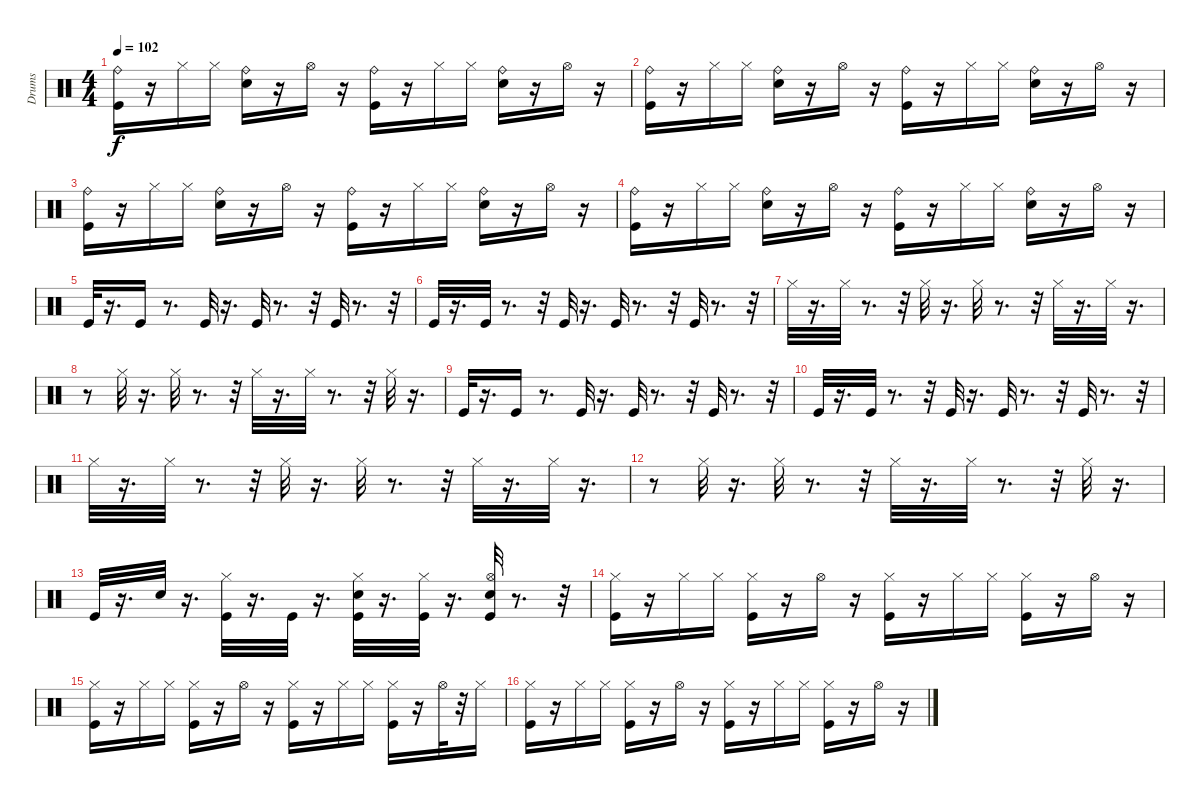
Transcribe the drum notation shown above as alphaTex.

\track ("Drums" "Drums") {instrument percussion}
\staff {score}
\articulation defaults
\ts (4 4)
\tempo 102
\clef neutral
\ks c
("Ride (bell)" "Kick (hit)").16{dy f} r.16 "Hi-Hat (closed)".16 "Hi-Hat (closed)".16 ("Ride (bell)" "Snare (hit) 2").16 r.16 "Hi-Hat (open)".16 r.16 ("Ride (bell)" "Kick (hit)").16 r.16 "Hi-Hat (closed)".16 "Hi-Hat (closed)".16 ("Ride (bell)" "Snare (hit) 2").16 r.16 "Hi-Hat (open)".16 r.16 |
("Ride (bell)" "Kick (hit)").16 r.16 "Hi-Hat (closed)".16 "Hi-Hat (closed)".16 ("Ride (bell)" "Snare (hit) 2").16 r.16 "Hi-Hat (open)".16 r.16 ("Ride (bell)" "Kick (hit)").16 r.16 "Hi-Hat (closed)".16 "Hi-Hat (closed)".16 ("Ride (bell)" "Snare (hit) 2").16 r.16 "Hi-Hat (open)".16 r.16 |
("Ride (bell)" "Kick (hit)").16 r.16 "Hi-Hat (closed)".16 "Hi-Hat (closed)".16 ("Ride (bell)" "Snare (hit) 2").16 r.16 "Hi-Hat (open)".16 r.16 ("Ride (bell)" "Kick (hit)").16 r.16 "Hi-Hat (closed)".16 "Hi-Hat (closed)".16 ("Ride (bell)" "Snare (hit) 2").16 r.16 "Hi-Hat (open)".16 r.16 |
("Ride (bell)" "Kick (hit)").16 r.16 "Hi-Hat (closed)".16 "Hi-Hat (closed)".16 ("Ride (bell)" "Snare (hit) 2").16 r.16 "Hi-Hat (open)".16 r.16 ("Ride (bell)" "Kick (hit)").16 r.16 "Hi-Hat (closed)".16 "Hi-Hat (closed)".16 ("Ride (bell)" "Snare (hit) 2").16 r.16 "Hi-Hat (open)".16 r.16 |
"Kick (hit)".32 r.16{d} "Kick (hit)".16 r.8{d} "Kick (hit)".32 r.16{d} "Kick (hit)".32 r.8{d} r.32 "Kick (hit)".32 r.8{d} r.32 |
"Kick (hit)".32 r.16{d} "Kick (hit)".32 r.8{d} r.32 "Kick (hit)".32 r.16{d} "Kick (hit)".32 r.8{d} r.32 "Kick (hit)".32 r.8{d} r.32 |
"Hi-Hat (closed)".32 r.16{d} "Hi-Hat (closed)".32 r.8{d} r.32 "Hi-Hat (closed)".32 r.16{d} "Hi-Hat (closed)".32 r.8{d} r.32 "Hi-Hat (closed)".32 r.16{d} "Hi-Hat (closed)".32 r.16{d} |
r.8 "Hi-Hat (closed)".32 r.16{d} "Hi-Hat (closed)".32 r.8{d} r.32 "Hi-Hat (closed)".32 r.16{d} "Hi-Hat (closed)".32 r.8{d} r.32 "Hi-Hat (closed)".32 r.16{d} |
"Kick (hit)".32 r.16{d} "Kick (hit)".16 r.8{d} "Kick (hit)".32 r.16{d} "Kick (hit)".32 r.8{d} r.32 "Kick (hit)".32 r.8{d} r.32 |
"Kick (hit)".32 r.16{d} "Kick (hit)".32 r.8{d} r.32 "Kick (hit)".32 r.16{d} "Kick (hit)".32 r.8{d} r.32 "Kick (hit)".32 r.8{d} r.32 |
"Hi-Hat (closed)".32 r.16{d} "Hi-Hat (closed)".32 r.8{d} r.32 "Hi-Hat (closed)".32 r.16{d} "Hi-Hat (closed)".32 r.8{d} r.32 "Hi-Hat (closed)".32 r.16{d} "Hi-Hat (closed)".32 r.16{d} |
r.8 "Hi-Hat (closed)".32 r.16{d} "Hi-Hat (closed)".32 r.8{d} r.32 "Hi-Hat (closed)".32 r.16{d} "Hi-Hat (closed)".32 r.8{d} r.32 "Hi-Hat (closed)".32 r.16{d} |
"Kick (hit)".32 r.16{d} "Electric Snare (hit)".32 r.16{d} ("Hi-Hat (closed)" "Kick (hit)").32 r.16{d} "Kick (hit)".32 r.16{d} ("Hi-Hat (closed)" "Electric Snare (hit)" "Kick (hit)").32 r.16{d} ("Hi-Hat (closed)" "Kick (hit)").32 r.16{d} ("Electric Snare (hit)" "Hi-Hat (open)" "Kick (hit)").32 r.8{d} r.32 |
("Hi-Hat (closed)" "Kick (hit)").16 r.16 "Hi-Hat (closed)".16 "Hi-Hat (closed)".16 ("Hi-Hat (closed)" "Kick (hit)").16 r.16 "Hi-Hat (open)".16 r.16 ("Hi-Hat (closed)" "Kick (hit)").16 r.16 "Hi-Hat (closed)".16 "Hi-Hat (closed)".16 ("Hi-Hat (closed)" "Kick (hit)").16 r.16 "Hi-Hat (open)".16 r.16 |
("Hi-Hat (closed)" "Kick (hit)").16 r.16 "Hi-Hat (closed)".16 "Hi-Hat (closed)".16 ("Hi-Hat (closed)" "Kick (hit)").16 r.16 "Hi-Hat (open)".16 r.16 ("Hi-Hat (closed)" "Kick (hit)").16 r.16 "Hi-Hat (closed)".16 "Hi-Hat (closed)".16 ("Hi-Hat (closed)" "Kick (hit)").16 r.16 "Hi-Hat (open)".32 r.32 "Hi-Hat (closed)".16 |
("Hi-Hat (closed)" "Kick (hit)").16 r.16 "Hi-Hat (closed)".16 "Hi-Hat (closed)".16 ("Hi-Hat (closed)" "Kick (hit)").16 r.16 "Hi-Hat (open)".16 r.16 ("Hi-Hat (closed)" "Kick (hit)").16 r.16 "Hi-Hat (closed)".16 "Hi-Hat (closed)".16 ("Hi-Hat (closed)" "Kick (hit)").16 r.16 "Hi-Hat (open)".16 r.16
